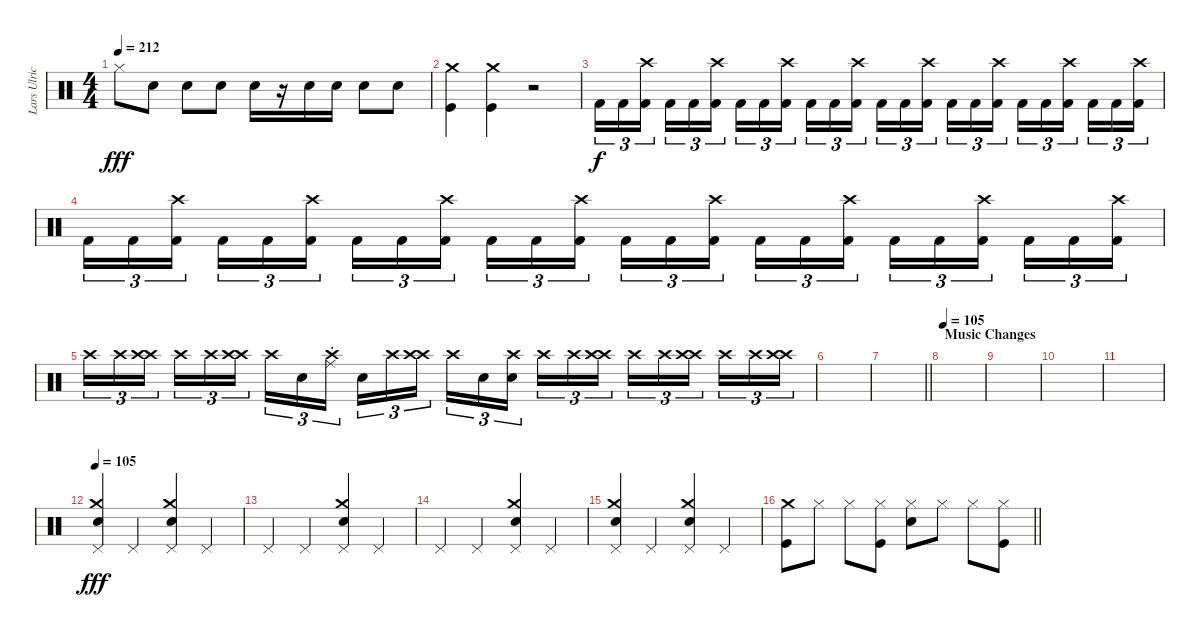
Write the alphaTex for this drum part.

\track ("Lars Ulrich" "Lars Ulric") {instrument percussion}
\staff {score}
\articulation defaults
\ts (4 4)
\tempo 212
\clef neutral
\ks c "Hi-Hat (closed)".8{dy fff} "Snare (hit) 2".8 "Snare (hit) 2".8 "Snare (hit) 2".8 "Snare (hit) 2".16
r.16 "Snare (hit) 2".16 "Snare (hit) 2".16 "Snare (hit) 2".8 "Snare (hit) 2".8 |
("Kick (hit)" "Crash medium (hit)").4 ("Kick (hit)" "Crash medium (hit)").4 r.2 |
"Kick (hit) 2".16{tu (3 2) dy f} "Kick (hit) 2".16{tu (3 2)} ("Kick (hit) 2" "Crash high (hit)").16{tu (3 2) beam splitsecondary} "Kick (hit) 2".16{tu (3 2)} "Kick (hit) 2".16{tu (3 2)} ("Kick (hit) 2" "Crash high (hit)").16{tu (3 2)} "Kick (hit) 2".16{tu (3 2)} "Kick (hit) 2".16{tu (3 2)} ("Kick (hit) 2" "Crash high (hit)").16{tu (3 2) beam splitsecondary} "Kick (hit) 2".16{tu (3 2)} "Kick (hit) 2".16{tu (3 2)} ("Kick (hit) 2" "Crash high (hit)").16{tu (3 2)} "Kick (hit) 2".16{tu (3 2)} "Kick (hit) 2".16{tu (3 2)} ("Kick (hit) 2" "Crash high (hit)").16{tu (3 2) beam splitsecondary} "Kick (hit) 2".16{tu (3 2)} "Kick (hit) 2".16{tu (3 2)} ("Kick (hit) 2" "Crash high (hit)").16{tu (3 2)} "Kick (hit) 2".16{tu (3 2)} "Kick (hit) 2".16{tu (3 2)} ("Kick (hit) 2" "Crash high (hit)").16{tu (3 2) beam splitsecondary} "Kick (hit) 2".16{tu (3 2)} "Kick (hit) 2".16{tu (3 2)} ("Kick (hit) 2" "Crash high (hit)").16{tu (3 2)} |
"Kick (hit) 2".16{tu (3 2)} "Kick (hit) 2".16{tu (3 2)} ("Kick (hit) 2" "Crash high (hit)").16{tu (3 2) beam splitsecondary} "Kick (hit) 2".16{tu (3 2)} "Kick (hit) 2".16{tu (3 2)} ("Kick (hit) 2" "Crash high (hit)").16{tu (3 2)} "Kick (hit) 2".16{tu (3 2)} "Kick (hit) 2".16{tu (3 2)} ("Kick (hit) 2" "Crash high (hit)").16{tu (3 2) beam splitsecondary} "Kick (hit) 2".16{tu (3 2)} "Kick (hit) 2".16{tu (3 2)} ("Kick (hit) 2" "Crash high (hit)").16{tu (3 2)} "Kick (hit) 2".16{tu (3 2)} "Kick (hit) 2".16{tu (3 2)} ("Kick (hit) 2" "Crash high (hit)").16{tu (3 2) beam splitsecondary} "Kick (hit) 2".16{tu (3 2)} "Kick (hit) 2".16{tu (3 2)} ("Kick (hit) 2" "Crash high (hit)").16{tu (3 2)} "Kick (hit) 2".16{tu (3 2)} "Kick (hit) 2".16{tu (3 2)} ("Kick (hit) 2" "Crash high (hit)").16{tu (3 2) beam splitsecondary} "Kick (hit) 2".16{tu (3 2)} "Kick (hit) 2".16{tu (3 2)} ("Kick (hit) 2" "Crash high (hit)").16{tu (3 2)} |
"Crash high (hit)".16{tu (3 2)} "Crash high (hit)".16{tu (3 2)} ("Crash high (hit)" "Crash high (hit)").16{tu (3 2) beam splitsecondary} "Crash high (hit)".16{tu (3 2)} "Crash high (hit)".16{tu (3 2)} ("Crash high (hit)" "Crash high (hit)").16{tu (3 2)} "Crash high (hit)".16{tu (3 2)} "Snare (hit)".16{tu (3 2)} ("Ride (choke)" "Crash high (hit)").16{tu (3 2) beam splitsecondary} "Snare (hit)".16{tu (3 2)} "Crash high (hit)".16{tu (3 2)} ("Crash high (hit)" "Crash high (hit)").16{tu (3 2)} "Crash high (hit)".16{tu (3 2)} "Snare (hit)".16{tu (3 2)} ("Snare (hit)" "Crash high (hit)").16{tu (3 2) beam splitsecondary} "Crash high (hit)".16{tu (3 2)} "Crash high (hit)".16{tu (3 2)} ("Crash high (hit)" "Crash high (hit)").16{tu (3 2)} "Crash high (hit)".16{tu (3 2)} "Crash high (hit)".16{tu (3 2)} ("Crash high (hit)" "Crash high (hit)").16{tu (3 2) beam splitsecondary} "Crash high (hit)".16{tu (3 2)} "Crash high (hit)".16{tu (3 2)} ("Crash high (hit)" "Crash high (hit)").16{tu (3 2)} |
|
\barLineRight lightlight
|
\section ("" "Music Changes")
\tempo 105
|
|
|
|
\tempo 105
("Crash medium (hit)" "Pedal Hi-Hat (hit)" "Snare (hit) 2").4{dy fff} "Pedal Hi-Hat (hit)".4 ("Pedal Hi-Hat (hit)" "Crash medium (hit)" "Snare (hit) 2").4 "Pedal Hi-Hat (hit)".4 |
"Pedal Hi-Hat (hit)".4 "Pedal Hi-Hat (hit)".4 ("Pedal Hi-Hat (hit)" "Crash medium (hit)" "Snare (hit) 2").4 "Pedal Hi-Hat (hit)".4 |
"Pedal Hi-Hat (hit)".4 "Pedal Hi-Hat (hit)".4 ("Crash medium (hit)" "Snare (hit) 2" "Pedal Hi-Hat (hit)").4 "Pedal Hi-Hat (hit)".4 |
("Crash medium (hit)" "Snare (hit) 2" "Pedal Hi-Hat (hit)").4 "Pedal Hi-Hat (hit)".4 ("Pedal Hi-Hat (hit)" "Snare (hit) 2" "Crash medium (hit)").4 "Pedal Hi-Hat (hit)".4 |
\barLineRight lightlight
("Kick (hit)" "Crash medium (hit)").8 "Hi-Hat (closed)".8 "Hi-Hat (closed)".8 ("Kick (hit)" "Hi-Hat (closed)").8 ("Snare (hit) 2" "Hi-Hat (closed)").8 "Hi-Hat (closed)".8 "Hi-Hat (closed)".8 ("Hi-Hat (closed)" "Kick (hit)").8
